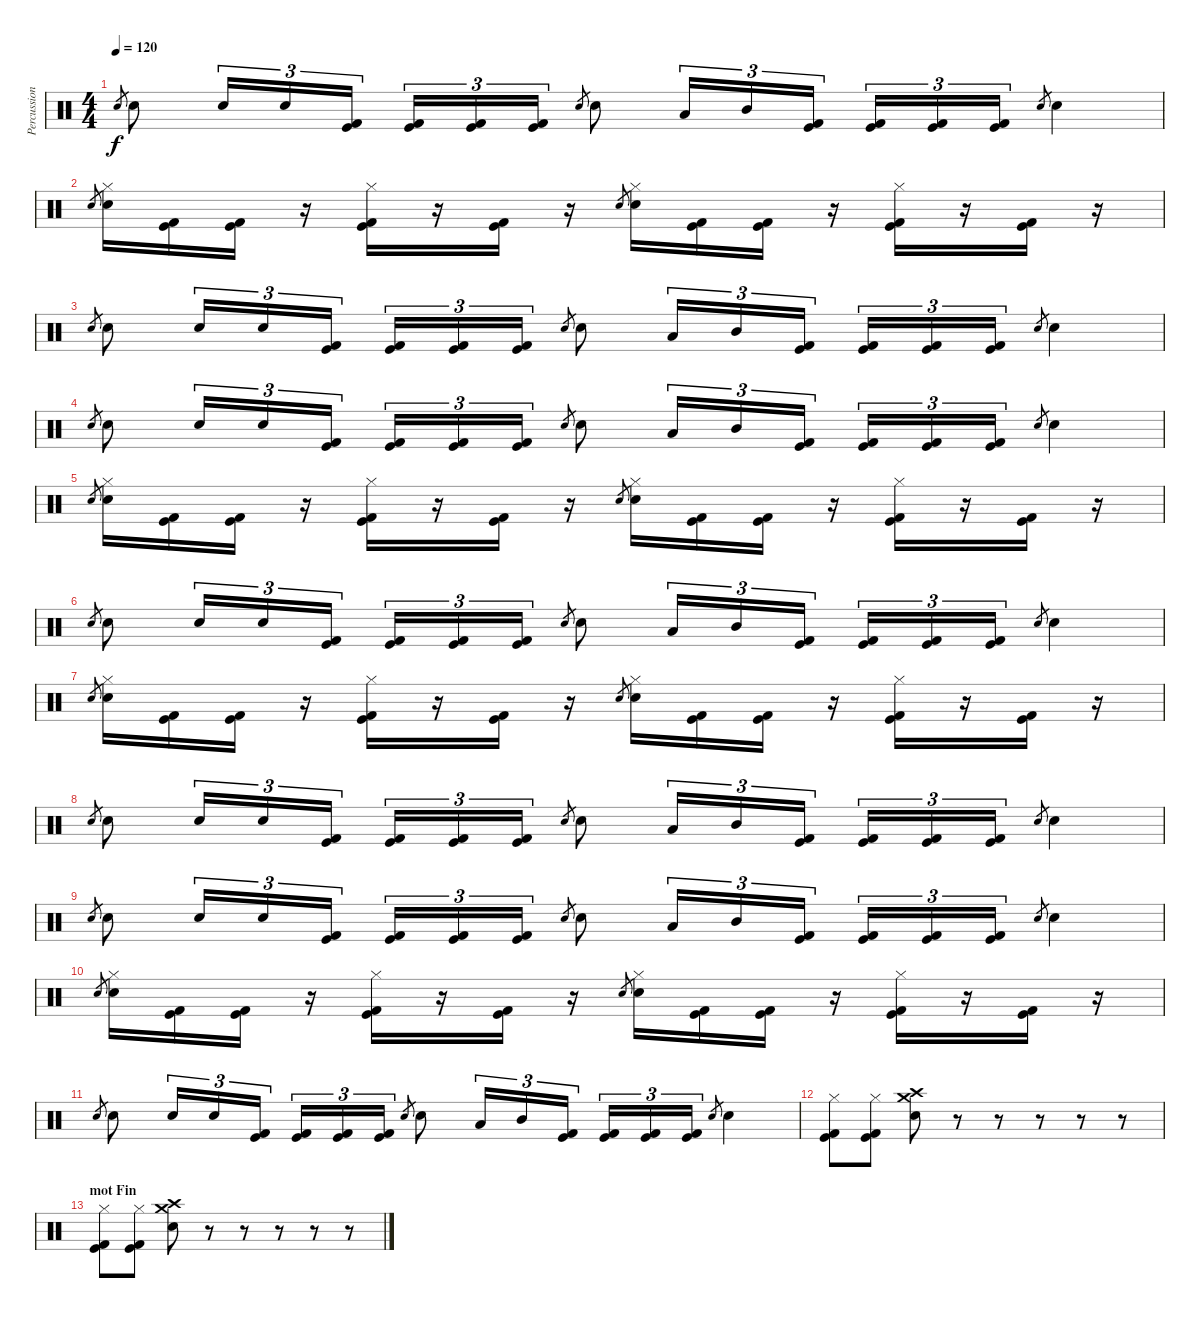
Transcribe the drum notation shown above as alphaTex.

\track ("Percussions" "Percussion") {instrument percussion}
\staff {score}
\articulation defaults
\ts (4 4)
\tempo 120
\clef neutral
\ks c "Electric Snare (hit)".8{gr dy f} "Electric Snare (hit)".8 "Electric Snare (hit)".16{tu (3 2)} "Electric Snare (hit)".16{tu (3 2)}
("Kick (hit) 2" "Kick (hit)").16{tu (3 2)} ("Kick (hit) 2" "Kick (hit)").16{tu (3 2)} ("Kick (hit) 2" "Kick (hit)").16{tu (3 2)} ("Kick (hit) 2" "Kick (hit)").16{tu (3 2)} "Electric Snare (hit)".8{gr} "Electric Snare (hit)".8 "Low Tom (hit)".16{tu (3 2)} "Mid Tom (hit)".16{tu (3 2)} ("Kick (hit) 2" "Kick (hit)").16{tu (3 2)} ("Kick (hit) 2" "Kick (hit)").16{tu (3 2)} ("Kick (hit) 2" "Kick (hit)").16{tu (3 2)} ("Kick (hit) 2" "Kick (hit)").16{tu (3 2)} "Electric Snare (hit)".8{gr} "Electric Snare (hit)".4 |
"Electric Snare (hit)".8{gr} ("Hi-Hat (closed)" "Electric Snare (hit)").16 ("Kick (hit) 2" "Kick (hit)").16 ("Kick (hit) 2" "Kick (hit)").16 r.16 ("Hi-Hat (closed)" "Kick (hit) 2" "Kick (hit)").16 r.16 ("Kick (hit) 2" "Kick (hit)").16 r.16 "Electric Snare (hit)".8{gr} ("Hi-Hat (closed)" "Electric Snare (hit)").16 ("Kick (hit) 2" "Kick (hit)").16 ("Kick (hit) 2" "Kick (hit)").16 r.16 ("Hi-Hat (closed)" "Kick (hit) 2" "Kick (hit)").16 r.16 ("Kick (hit) 2" "Kick (hit)").16 r.16 |
"Electric Snare (hit)".8{gr} "Electric Snare (hit)".8 "Electric Snare (hit)".16{tu (3 2)} "Electric Snare (hit)".16{tu (3 2)} ("Kick (hit) 2" "Kick (hit)").16{tu (3 2)} ("Kick (hit) 2" "Kick (hit)").16{tu (3 2)} ("Kick (hit) 2" "Kick (hit)").16{tu (3 2)} ("Kick (hit) 2" "Kick (hit)").16{tu (3 2)} "Electric Snare (hit)".8{gr} "Electric Snare (hit)".8 "Low Tom (hit)".16{tu (3 2)} "Mid Tom (hit)".16{tu (3 2)} ("Kick (hit) 2" "Kick (hit)").16{tu (3 2)} ("Kick (hit) 2" "Kick (hit)").16{tu (3 2)} ("Kick (hit) 2" "Kick (hit)").16{tu (3 2)} ("Kick (hit) 2" "Kick (hit)").16{tu (3 2)} "Electric Snare (hit)".8{gr} "Electric Snare (hit)".4 |
"Electric Snare (hit)".8{gr} "Electric Snare (hit)".8 "Electric Snare (hit)".16{tu (3 2)} "Electric Snare (hit)".16{tu (3 2)} ("Kick (hit) 2" "Kick (hit)").16{tu (3 2)} ("Kick (hit) 2" "Kick (hit)").16{tu (3 2)} ("Kick (hit) 2" "Kick (hit)").16{tu (3 2)} ("Kick (hit) 2" "Kick (hit)").16{tu (3 2)} "Electric Snare (hit)".8{gr} "Electric Snare (hit)".8 "Low Tom (hit)".16{tu (3 2)} "Mid Tom (hit)".16{tu (3 2)} ("Kick (hit) 2" "Kick (hit)").16{tu (3 2)} ("Kick (hit) 2" "Kick (hit)").16{tu (3 2)} ("Kick (hit) 2" "Kick (hit)").16{tu (3 2)} ("Kick (hit) 2" "Kick (hit)").16{tu (3 2)} "Electric Snare (hit)".8{gr} "Electric Snare (hit)".4 |
"Electric Snare (hit)".8{gr} ("Hi-Hat (closed)" "Electric Snare (hit)").16 ("Kick (hit) 2" "Kick (hit)").16 ("Kick (hit) 2" "Kick (hit)").16 r.16 ("Hi-Hat (closed)" "Kick (hit) 2" "Kick (hit)").16 r.16 ("Kick (hit) 2" "Kick (hit)").16 r.16 "Electric Snare (hit)".8{gr} ("Hi-Hat (closed)" "Electric Snare (hit)").16 ("Kick (hit) 2" "Kick (hit)").16 ("Kick (hit) 2" "Kick (hit)").16 r.16 ("Hi-Hat (closed)" "Kick (hit) 2" "Kick (hit)").16 r.16 ("Kick (hit) 2" "Kick (hit)").16 r.16 |
"Electric Snare (hit)".8{gr} "Electric Snare (hit)".8 "Electric Snare (hit)".16{tu (3 2)} "Electric Snare (hit)".16{tu (3 2)} ("Kick (hit) 2" "Kick (hit)").16{tu (3 2)} ("Kick (hit) 2" "Kick (hit)").16{tu (3 2)} ("Kick (hit) 2" "Kick (hit)").16{tu (3 2)} ("Kick (hit) 2" "Kick (hit)").16{tu (3 2)} "Electric Snare (hit)".8{gr} "Electric Snare (hit)".8 "Low Tom (hit)".16{tu (3 2)} "Mid Tom (hit)".16{tu (3 2)} ("Kick (hit) 2" "Kick (hit)").16{tu (3 2)} ("Kick (hit) 2" "Kick (hit)").16{tu (3 2)} ("Kick (hit) 2" "Kick (hit)").16{tu (3 2)} ("Kick (hit) 2" "Kick (hit)").16{tu (3 2)} "Electric Snare (hit)".8{gr} "Electric Snare (hit)".4 |
"Electric Snare (hit)".8{gr} ("Hi-Hat (closed)" "Electric Snare (hit)").16 ("Kick (hit) 2" "Kick (hit)").16 ("Kick (hit) 2" "Kick (hit)").16 r.16 ("Hi-Hat (closed)" "Kick (hit) 2" "Kick (hit)").16 r.16 ("Kick (hit) 2" "Kick (hit)").16 r.16 "Electric Snare (hit)".8{gr} ("Hi-Hat (closed)" "Electric Snare (hit)").16 ("Kick (hit) 2" "Kick (hit)").16 ("Kick (hit) 2" "Kick (hit)").16 r.16 ("Hi-Hat (closed)" "Kick (hit) 2" "Kick (hit)").16 r.16 ("Kick (hit) 2" "Kick (hit)").16 r.16 |
"Electric Snare (hit)".8{gr} "Electric Snare (hit)".8 "Electric Snare (hit)".16{tu (3 2)} "Electric Snare (hit)".16{tu (3 2)} ("Kick (hit) 2" "Kick (hit)").16{tu (3 2)} ("Kick (hit) 2" "Kick (hit)").16{tu (3 2)} ("Kick (hit) 2" "Kick (hit)").16{tu (3 2)} ("Kick (hit) 2" "Kick (hit)").16{tu (3 2)} "Electric Snare (hit)".8{gr} "Electric Snare (hit)".8 "Low Tom (hit)".16{tu (3 2)} "Mid Tom (hit)".16{tu (3 2)} ("Kick (hit) 2" "Kick (hit)").16{tu (3 2)} ("Kick (hit) 2" "Kick (hit)").16{tu (3 2)} ("Kick (hit) 2" "Kick (hit)").16{tu (3 2)} ("Kick (hit) 2" "Kick (hit)").16{tu (3 2)} "Electric Snare (hit)".8{gr} "Electric Snare (hit)".4 |
"Electric Snare (hit)".8{gr} "Electric Snare (hit)".8 "Electric Snare (hit)".16{tu (3 2)} "Electric Snare (hit)".16{tu (3 2)} ("Kick (hit) 2" "Kick (hit)").16{tu (3 2)} ("Kick (hit) 2" "Kick (hit)").16{tu (3 2)} ("Kick (hit) 2" "Kick (hit)").16{tu (3 2)} ("Kick (hit) 2" "Kick (hit)").16{tu (3 2)} "Electric Snare (hit)".8{gr} "Electric Snare (hit)".8 "Low Tom (hit)".16{tu (3 2)} "Mid Tom (hit)".16{tu (3 2)} ("Kick (hit) 2" "Kick (hit)").16{tu (3 2)} ("Kick (hit) 2" "Kick (hit)").16{tu (3 2)} ("Kick (hit) 2" "Kick (hit)").16{tu (3 2)} ("Kick (hit) 2" "Kick (hit)").16{tu (3 2)} "Electric Snare (hit)".8{gr} "Electric Snare (hit)".4 |
"Electric Snare (hit)".8{gr} ("Hi-Hat (closed)" "Electric Snare (hit)").16 ("Kick (hit) 2" "Kick (hit)").16 ("Kick (hit) 2" "Kick (hit)").16 r.16 ("Hi-Hat (closed)" "Kick (hit) 2" "Kick (hit)").16 r.16 ("Kick (hit) 2" "Kick (hit)").16 r.16 "Electric Snare (hit)".8{gr} ("Hi-Hat (closed)" "Electric Snare (hit)").16 ("Kick (hit) 2" "Kick (hit)").16 ("Kick (hit) 2" "Kick (hit)").16 r.16 ("Hi-Hat (closed)" "Kick (hit) 2" "Kick (hit)").16 r.16 ("Kick (hit) 2" "Kick (hit)").16 r.16 |
"Electric Snare (hit)".8{gr} "Electric Snare (hit)".8 "Electric Snare (hit)".16{tu (3 2)} "Electric Snare (hit)".16{tu (3 2)} ("Kick (hit) 2" "Kick (hit)").16{tu (3 2)} ("Kick (hit) 2" "Kick (hit)").16{tu (3 2)} ("Kick (hit) 2" "Kick (hit)").16{tu (3 2)} ("Kick (hit) 2" "Kick (hit)").16{tu (3 2)} "Electric Snare (hit)".8{gr} "Electric Snare (hit)".8 "Low Tom (hit)".16{tu (3 2)} "Mid Tom (hit)".16{tu (3 2)} ("Kick (hit) 2" "Kick (hit)").16{tu (3 2)} ("Kick (hit) 2" "Kick (hit)").16{tu (3 2)} ("Kick (hit) 2" "Kick (hit)").16{tu (3 2)} ("Kick (hit) 2" "Kick (hit)").16{tu (3 2)} "Electric Snare (hit)".8{gr} "Electric Snare (hit)".4 |
("Hi-Hat (closed)" "Kick (hit) 2" "Kick (hit)").8 ("Hi-Hat (closed)" "Kick (hit) 2" "Kick (hit)").8 ("Crash medium (hit)" "Crash high (hit)" "Electric Snare (hit)").8 r.8 r.8 r.8 r.8 r.8 |
\section ("" "mot Fin")
("Hi-Hat (closed)" "Kick (hit) 2" "Kick (hit)").8 ("Hi-Hat (closed)" "Kick (hit) 2" "Kick (hit)").8 ("Crash medium (hit)" "Crash high (hit)" "Electric Snare (hit)").8 r.8 r.8 r.8 r.8 r.8
